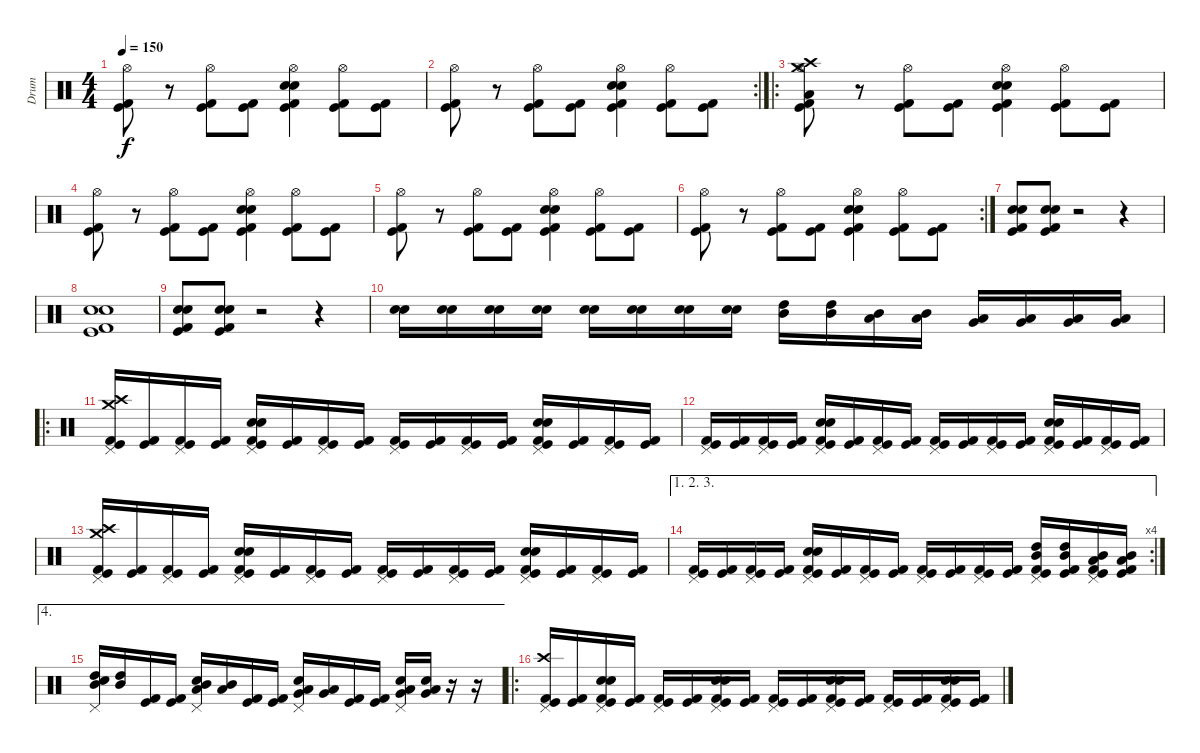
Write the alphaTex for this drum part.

\track ("Drum" "Drum") {instrument percussion}
\staff {score}
\articulation defaults
\ts (4 4)
\tempo 150
\clef neutral
\ks c
("Hi-Hat (open)" "Kick (hit)" "Kick (hit) 2").8{dy f} r.8 ("Hi-Hat (open)" "Kick (hit)" "Kick (hit) 2").8 ("Kick (hit)" "Kick (hit) 2").8 ("Hi-Hat (open)" "Electric Snare (hit)" "Snare (hit) 2" "Kick (hit)" "Kick (hit) 2").4 ("Hi-Hat (open)" "Kick (hit) 2" "Kick (hit)").8 ("Kick (hit) 2" "Kick (hit)").8 |
\rc 2
("Hi-Hat (open)" "Kick (hit)" "Kick (hit) 2").8 r.8 ("Hi-Hat (open)" "Kick (hit)" "Kick (hit) 2").8 ("Kick (hit)" "Kick (hit) 2").8 ("Hi-Hat (open)" "Electric Snare (hit)" "Snare (hit) 2" "Kick (hit)" "Kick (hit) 2").4 ("Hi-Hat (open)" "Kick (hit) 2" "Kick (hit)").8 ("Kick (hit) 2" "Kick (hit)").8 |
\ro
("Crash high (hit)" "Low Tom (hit)" "Hi-Hat (open)" "Crash medium (hit)" "Kick (hit)" "Kick (hit) 2").8 r.8 ("Hi-Hat (open)" "Kick (hit)" "Kick (hit) 2").8 ("Kick (hit)" "Kick (hit) 2").8 ("Hi-Hat (open)" "Electric Snare (hit)" "Snare (hit) 2" "Kick (hit)" "Kick (hit) 2").4 ("Hi-Hat (open)" "Kick (hit) 2" "Kick (hit)").8 ("Kick (hit) 2" "Kick (hit)").8 |
("Hi-Hat (open)" "Kick (hit)" "Kick (hit) 2").8 r.8 ("Hi-Hat (open)" "Kick (hit)" "Kick (hit) 2").8 ("Kick (hit)" "Kick (hit) 2").8 ("Hi-Hat (open)" "Electric Snare (hit)" "Snare (hit) 2" "Kick (hit)" "Kick (hit) 2").4 ("Hi-Hat (open)" "Kick (hit) 2" "Kick (hit)").8 ("Kick (hit) 2" "Kick (hit)").8 |
("Hi-Hat (open)" "Kick (hit)" "Kick (hit) 2").8 r.8 ("Hi-Hat (open)" "Kick (hit)" "Kick (hit) 2").8 ("Kick (hit)" "Kick (hit) 2").8 ("Hi-Hat (open)" "Electric Snare (hit)" "Snare (hit) 2" "Kick (hit)" "Kick (hit) 2").4 ("Hi-Hat (open)" "Kick (hit) 2" "Kick (hit)").8 ("Kick (hit) 2" "Kick (hit)").8 |
\rc 2
("Hi-Hat (open)" "Kick (hit)" "Kick (hit) 2").8 r.8 ("Hi-Hat (open)" "Kick (hit)" "Kick (hit) 2").8 ("Kick (hit)" "Kick (hit) 2").8 ("Hi-Hat (open)" "Electric Snare (hit)" "Snare (hit) 2" "Kick (hit)" "Kick (hit) 2").4 ("Hi-Hat (open)" "Kick (hit) 2" "Kick (hit)").8 ("Kick (hit) 2" "Kick (hit)").8 |
("Electric Snare (hit)" "Snare (hit) 2" "Kick (hit)" "Kick (hit) 2").8 ("Electric Snare (hit)" "Snare (hit) 2" "Kick (hit)" "Kick (hit) 2").8 r.2 r.4 |
("Snare (hit) 2" "Electric Snare (hit)" "Kick (hit)" "Kick (hit) 2").1 |
("Electric Snare (hit)" "Snare (hit) 2" "Kick (hit)" "Kick (hit) 2").8 ("Electric Snare (hit)" "Snare (hit) 2" "Kick (hit)" "Kick (hit) 2").8 r.2 r.4 |
("Snare (hit) 2" "Electric Snare (hit)").16 ("Snare (hit) 2" "Electric Snare (hit)").16 ("Snare (hit) 2" "Electric Snare (hit)").16 ("Snare (hit) 2" "Electric Snare (hit)").16 ("Snare (hit) 2" "Electric Snare (hit)").16 ("Snare (hit) 2" "Electric Snare (hit)").16 ("Snare (hit) 2" "Electric Snare (hit)").16 ("Snare (hit) 2" "Electric Snare (hit)").16 ("Mid Tom (hit)" "High Tom (hit)").16 ("Mid Tom (hit)" "High Tom (hit)").16 ("Low Tom (hit)" "Mid Tom (hit)").16 ("Low Tom (hit)" "Mid Tom (hit)").16 ("Very Low Tom (hit)" "Low Tom (hit)").16 ("Very Low Tom (hit)" "Low Tom (hit)").16 ("Low Floor Tom (hit)" "Very Low Tom (hit)").16 ("Low Floor Tom (hit)" "Very Low Tom (hit)").16 |
\ro
("Crash high (hit)" "Pedal Hi-Hat (hit)" "Crash medium (hit)" "Kick (hit) 2" "Kick (hit)").16 ("Kick (hit) 2" "Kick (hit)").16 ("Pedal Hi-Hat (hit)" "Kick (hit) 2" "Kick (hit)").16 ("Kick (hit) 2" "Kick (hit)").16 ("Pedal Hi-Hat (hit)" "Snare (hit) 2" "Electric Snare (hit)" "Kick (hit) 2" "Kick (hit)").16 ("Kick (hit) 2" "Kick (hit)").16 ("Pedal Hi-Hat (hit)" "Kick (hit) 2" "Kick (hit)").16 ("Kick (hit) 2" "Kick (hit)").16 ("Pedal Hi-Hat (hit)" "Kick (hit) 2" "Kick (hit)").16 ("Kick (hit) 2" "Kick (hit)").16 ("Pedal Hi-Hat (hit)" "Kick (hit) 2" "Kick (hit)").16 ("Kick (hit) 2" "Kick (hit)").16 ("Pedal Hi-Hat (hit)" "Snare (hit) 2" "Electric Snare (hit)" "Kick (hit) 2" "Kick (hit)").16 ("Kick (hit) 2" "Kick (hit)").16 ("Pedal Hi-Hat (hit)" "Kick (hit) 2" "Kick (hit)").16 ("Kick (hit) 2" "Kick (hit)").16 |
("Pedal Hi-Hat (hit)" "Kick (hit) 2" "Kick (hit)").16 ("Kick (hit) 2" "Kick (hit)").16 ("Pedal Hi-Hat (hit)" "Kick (hit) 2" "Kick (hit)").16 ("Kick (hit) 2" "Kick (hit)").16 ("Pedal Hi-Hat (hit)" "Snare (hit) 2" "Electric Snare (hit)" "Kick (hit) 2" "Kick (hit)").16 ("Kick (hit) 2" "Kick (hit)").16 ("Pedal Hi-Hat (hit)" "Kick (hit) 2" "Kick (hit)").16 ("Kick (hit) 2" "Kick (hit)").16 ("Pedal Hi-Hat (hit)" "Kick (hit) 2" "Kick (hit)").16 ("Kick (hit) 2" "Kick (hit)").16 ("Pedal Hi-Hat (hit)" "Kick (hit) 2" "Kick (hit)").16 ("Kick (hit) 2" "Kick (hit)").16 ("Pedal Hi-Hat (hit)" "Snare (hit) 2" "Electric Snare (hit)" "Kick (hit) 2" "Kick (hit)").16 ("Kick (hit) 2" "Kick (hit)").16 ("Pedal Hi-Hat (hit)" "Kick (hit) 2" "Kick (hit)").16 ("Kick (hit) 2" "Kick (hit)").16 |
("Crash high (hit)" "Pedal Hi-Hat (hit)" "Crash medium (hit)" "Kick (hit) 2" "Kick (hit)").16 ("Kick (hit) 2" "Kick (hit)").16 ("Pedal Hi-Hat (hit)" "Kick (hit) 2" "Kick (hit)").16 ("Kick (hit) 2" "Kick (hit)").16 ("Pedal Hi-Hat (hit)" "Snare (hit) 2" "Electric Snare (hit)" "Kick (hit) 2" "Kick (hit)").16 ("Kick (hit) 2" "Kick (hit)").16 ("Pedal Hi-Hat (hit)" "Kick (hit) 2" "Kick (hit)").16 ("Kick (hit) 2" "Kick (hit)").16 ("Pedal Hi-Hat (hit)" "Kick (hit) 2" "Kick (hit)").16 ("Kick (hit) 2" "Kick (hit)").16 ("Pedal Hi-Hat (hit)" "Kick (hit) 2" "Kick (hit)").16 ("Kick (hit) 2" "Kick (hit)").16 ("Pedal Hi-Hat (hit)" "Snare (hit) 2" "Electric Snare (hit)" "Kick (hit) 2" "Kick (hit)").16 ("Kick (hit) 2" "Kick (hit)").16 ("Pedal Hi-Hat (hit)" "Kick (hit) 2" "Kick (hit)").16 ("Kick (hit) 2" "Kick (hit)").16 |
\ae (1 2 3)
\rc 4
("Pedal Hi-Hat (hit)" "Kick (hit) 2" "Kick (hit)").16 ("Kick (hit) 2" "Kick (hit)").16 ("Pedal Hi-Hat (hit)" "Kick (hit) 2" "Kick (hit)").16 ("Kick (hit) 2" "Kick (hit)").16 ("Pedal Hi-Hat (hit)" "Snare (hit) 2" "Electric Snare (hit)" "Kick (hit) 2" "Kick (hit)").16 ("Kick (hit) 2" "Kick (hit)").16 ("Pedal Hi-Hat (hit)" "Kick (hit) 2" "Kick (hit)").16 ("Kick (hit) 2" "Kick (hit)").16 ("Pedal Hi-Hat (hit)" "Kick (hit) 2" "Kick (hit)").16 ("Kick (hit) 2" "Kick (hit)").16 ("Pedal Hi-Hat (hit)" "Kick (hit) 2" "Kick (hit)").16 ("Kick (hit) 2" "Kick (hit)").16 ("Pedal Hi-Hat (hit)" "Mid Tom (hit)" "High Tom (hit)" "Kick (hit) 2" "Kick (hit)").16 ("Mid Tom (hit)" "High Tom (hit)" "Kick (hit) 2" "Kick (hit)").16 ("Pedal Hi-Hat (hit)" "Low Tom (hit)" "Mid Tom (hit)" "Kick (hit) 2" "Kick (hit)").16 ("Low Tom (hit)" "Mid Tom (hit)" "Kick (hit) 2" "Kick (hit)").16 |
\ae 4
("Pedal Hi-Hat (hit)" "Mid Tom (hit)" "High Tom (hit)" "Electric Snare (hit)").16 ("Mid Tom (hit)" "High Tom (hit)").16 ("Kick (hit)" "Kick (hit) 2").16 ("Kick (hit)" "Kick (hit) 2").16 ("Pedal Hi-Hat (hit)" "Low Tom (hit)" "Mid Tom (hit)" "Electric Snare (hit)").16 ("Low Tom (hit)" "Mid Tom (hit)").16 ("Kick (hit) 2" "Kick (hit)").16 ("Kick (hit) 2" "Kick (hit)").16 ("Pedal Hi-Hat (hit)" "Very Low Tom (hit)" "Low Tom (hit)" "Electric Snare (hit)").16 ("Very Low Tom (hit)" "Low Tom (hit)").16 ("Kick (hit) 2" "Kick (hit)").16 ("Kick (hit) 2" "Kick (hit)").16 ("Pedal Hi-Hat (hit)" "Very Low Tom (hit)" "Low Floor Tom (hit)" "Electric Snare (hit)").16 ("Very Low Tom (hit)" "Low Floor Tom (hit)" "Electric Snare (hit)").16 r.16 r.16 |
\ro
("Crash high (hit)" "Pedal Hi-Hat (hit)" "Kick (hit) 2" "Kick (hit)").16 ("Kick (hit) 2" "Kick (hit)").16 ("Pedal Hi-Hat (hit)" "Electric Snare (hit)" "Snare (hit) 2" "Kick (hit) 2" "Kick (hit)").16 ("Kick (hit) 2" "Kick (hit)").16 ("Pedal Hi-Hat (hit)" "Kick (hit) 2" "Kick (hit)").16 ("Kick (hit) 2" "Kick (hit)").16 ("Pedal Hi-Hat (hit)" "Electric Snare (hit)" "Snare (hit) 2" "Kick (hit) 2" "Kick (hit)").16 ("Kick (hit) 2" "Kick (hit)").16 ("Pedal Hi-Hat (hit)" "Kick (hit) 2" "Kick (hit)").16 ("Kick (hit) 2" "Kick (hit)").16 ("Pedal Hi-Hat (hit)" "Electric Snare (hit)" "Snare (hit) 2" "Kick (hit) 2" "Kick (hit)").16 ("Kick (hit) 2" "Kick (hit)").16 ("Pedal Hi-Hat (hit)" "Kick (hit) 2" "Kick (hit)").16 ("Kick (hit) 2" "Kick (hit)").16 ("Pedal Hi-Hat (hit)" "Electric Snare (hit)" "Snare (hit) 2" "Kick (hit) 2" "Kick (hit)").16 ("Kick (hit) 2" "Kick (hit)").16
